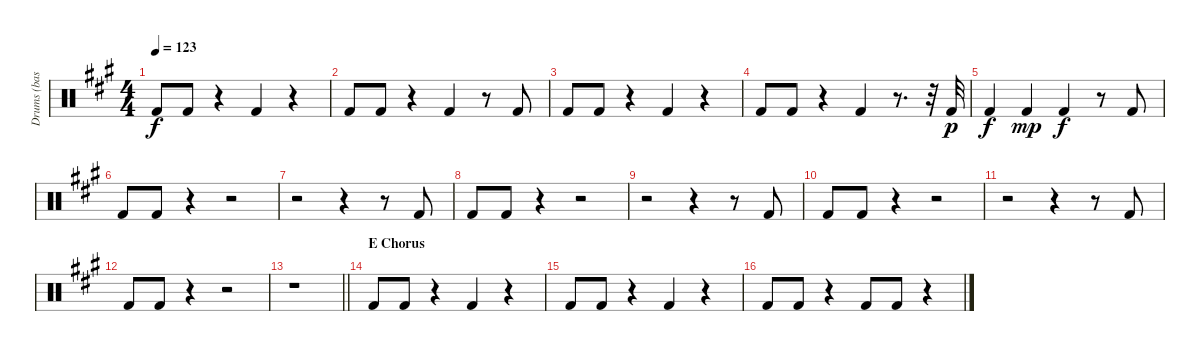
\track ("Drums (bass Drums)" "Drums (bas") {instrument percussion}
\staff {score}
\articulation defaults
\ts (4 4)
\tempo 123
\clef neutral
\ks a "Kick (hit) 2".8{dy f} "Kick (hit) 2".8
r.4 "Kick (hit) 2".4 r.4 |
"Kick (hit) 2".8 "Kick (hit) 2".8 r.4 "Kick (hit) 2".4 r.8 "Kick (hit) 2".8 |
"Kick (hit) 2".8 "Kick (hit) 2".8 r.4 "Kick (hit) 2".4 r.4 |
"Kick (hit) 2".8 "Kick (hit) 2".8 r.4 "Kick (hit) 2".4 r.8{d} r.32 "Kick (hit) 2".32{dy p} |
"Kick (hit) 2".4{dy f} "Kick (hit) 2".4{dy mp} "Kick (hit) 2".4{dy f} r.8 "Kick (hit) 2".8 |
"Kick (hit) 2".8 "Kick (hit) 2".8 r.4 r.2 |
r.2 r.4 r.8 "Kick (hit) 2".8 |
"Kick (hit) 2".8 "Kick (hit) 2".8 r.4 r.2 |
r.2 r.4 r.8 "Kick (hit) 2".8 |
"Kick (hit) 2".8 "Kick (hit) 2".8 r.4 r.2 |
r.2 r.4 r.8 "Kick (hit) 2".8 |
"Kick (hit) 2".8 "Kick (hit) 2".8 r.4 r.2 |
\barLineRight lightlight
r.1 |
\section ("" "E Chorus")
"Kick (hit) 2".8 "Kick (hit) 2".8 r.4 "Kick (hit) 2".4 r.4 |
"Kick (hit) 2".8 "Kick (hit) 2".8 r.4 "Kick (hit) 2".4 r.4 |
"Kick (hit) 2".8 "Kick (hit) 2".8 r.4 "Kick (hit) 2".8 "Kick (hit) 2".8 r.4
